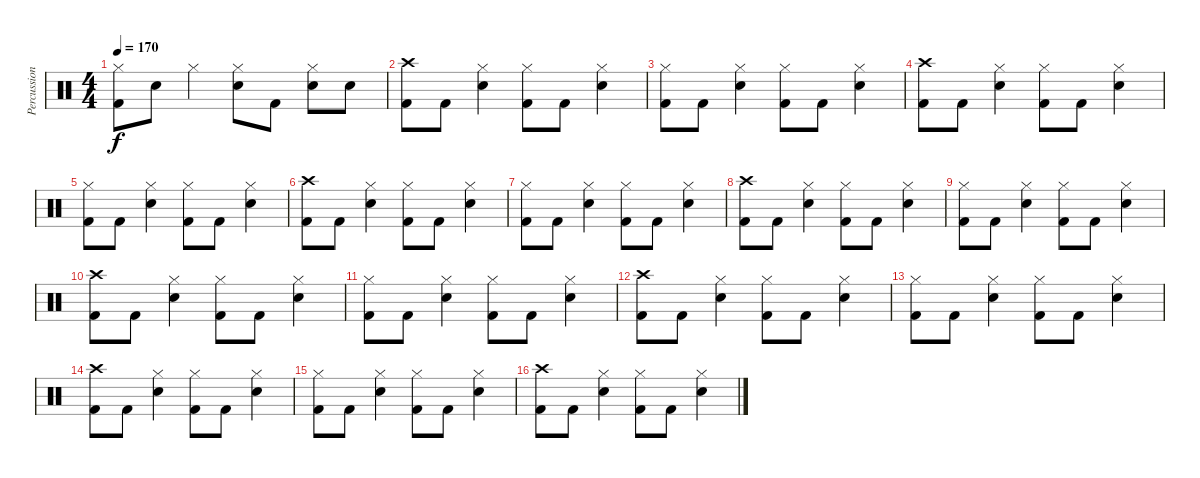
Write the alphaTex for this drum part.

\track ("Percussion" "Percussion") {instrument percussion}
\staff {score}
\articulation defaults
\ts (4 4)
\tempo 170
\clef neutral
\ks c
("Hi-Hat (closed)" "Kick (hit) 2").8{dy f} "Electric Snare (hit)".8 "Hi-Hat (closed)".4 ("Hi-Hat (closed)" "Electric Snare (hit)").8 "Kick (hit) 2".8 ("Hi-Hat (closed)" "Electric Snare (hit)").8 "Electric Snare (hit)".8 |
("Crash high (hit)" "Kick (hit) 2").8 "Kick (hit) 2".8 ("Hi-Hat (closed)" "Electric Snare (hit)").4 ("Hi-Hat (closed)" "Kick (hit) 2").8 "Kick (hit) 2".8 ("Hi-Hat (closed)" "Electric Snare (hit)").4 |
("Hi-Hat (closed)" "Kick (hit) 2").8 "Kick (hit) 2".8 ("Hi-Hat (closed)" "Electric Snare (hit)").4 ("Hi-Hat (closed)" "Kick (hit) 2").8 "Kick (hit) 2".8 ("Hi-Hat (closed)" "Electric Snare (hit)").4 |
("Crash high (hit)" "Kick (hit) 2").8 "Kick (hit) 2".8 ("Hi-Hat (closed)" "Electric Snare (hit)").4 ("Hi-Hat (closed)" "Kick (hit) 2").8 "Kick (hit) 2".8 ("Hi-Hat (closed)" "Electric Snare (hit)").4 |
("Hi-Hat (closed)" "Kick (hit) 2").8 "Kick (hit) 2".8 ("Hi-Hat (closed)" "Electric Snare (hit)").4 ("Hi-Hat (closed)" "Kick (hit) 2").8 "Kick (hit) 2".8 ("Hi-Hat (closed)" "Electric Snare (hit)").4 |
("Crash high (hit)" "Kick (hit) 2").8 "Kick (hit) 2".8 ("Hi-Hat (closed)" "Electric Snare (hit)").4 ("Hi-Hat (closed)" "Kick (hit) 2").8 "Kick (hit) 2".8 ("Hi-Hat (closed)" "Electric Snare (hit)").4 |
("Hi-Hat (closed)" "Kick (hit) 2").8 "Kick (hit) 2".8 ("Hi-Hat (closed)" "Electric Snare (hit)").4 ("Hi-Hat (closed)" "Kick (hit) 2").8 "Kick (hit) 2".8 ("Hi-Hat (closed)" "Electric Snare (hit)").4 |
("Crash high (hit)" "Kick (hit) 2").8 "Kick (hit) 2".8 ("Hi-Hat (closed)" "Electric Snare (hit)").4 ("Hi-Hat (closed)" "Kick (hit) 2").8 "Kick (hit) 2".8 ("Hi-Hat (closed)" "Electric Snare (hit)").4 |
("Hi-Hat (closed)" "Kick (hit) 2").8 "Kick (hit) 2".8 ("Hi-Hat (closed)" "Electric Snare (hit)").4 ("Hi-Hat (closed)" "Kick (hit) 2").8 "Kick (hit) 2".8 ("Hi-Hat (closed)" "Electric Snare (hit)").4 |
("Crash high (hit)" "Kick (hit) 2").8 "Kick (hit) 2".8 ("Hi-Hat (closed)" "Electric Snare (hit)").4 ("Hi-Hat (closed)" "Kick (hit) 2").8 "Kick (hit) 2".8 ("Hi-Hat (closed)" "Electric Snare (hit)").4 |
("Hi-Hat (closed)" "Kick (hit) 2").8 "Kick (hit) 2".8 ("Hi-Hat (closed)" "Electric Snare (hit)").4 ("Hi-Hat (closed)" "Kick (hit) 2").8 "Kick (hit) 2".8 ("Hi-Hat (closed)" "Electric Snare (hit)").4 |
("Crash high (hit)" "Kick (hit) 2").8 "Kick (hit) 2".8 ("Hi-Hat (closed)" "Electric Snare (hit)").4 ("Hi-Hat (closed)" "Kick (hit) 2").8 "Kick (hit) 2".8 ("Hi-Hat (closed)" "Electric Snare (hit)").4 |
("Hi-Hat (closed)" "Kick (hit) 2").8 "Kick (hit) 2".8 ("Hi-Hat (closed)" "Electric Snare (hit)").4 ("Hi-Hat (closed)" "Kick (hit) 2").8 "Kick (hit) 2".8 ("Hi-Hat (closed)" "Electric Snare (hit)").4 |
("Crash high (hit)" "Kick (hit) 2").8 "Kick (hit) 2".8 ("Hi-Hat (closed)" "Electric Snare (hit)").4 ("Hi-Hat (closed)" "Kick (hit) 2").8 "Kick (hit) 2".8 ("Hi-Hat (closed)" "Electric Snare (hit)").4 |
("Hi-Hat (closed)" "Kick (hit) 2").8 "Kick (hit) 2".8 ("Hi-Hat (closed)" "Electric Snare (hit)").4 ("Hi-Hat (closed)" "Kick (hit) 2").8 "Kick (hit) 2".8 ("Hi-Hat (closed)" "Electric Snare (hit)").4 |
("Crash high (hit)" "Kick (hit) 2").8 "Kick (hit) 2".8 ("Hi-Hat (closed)" "Electric Snare (hit)").4 ("Hi-Hat (closed)" "Kick (hit) 2").8 "Kick (hit) 2".8 ("Hi-Hat (closed)" "Electric Snare (hit)").4
